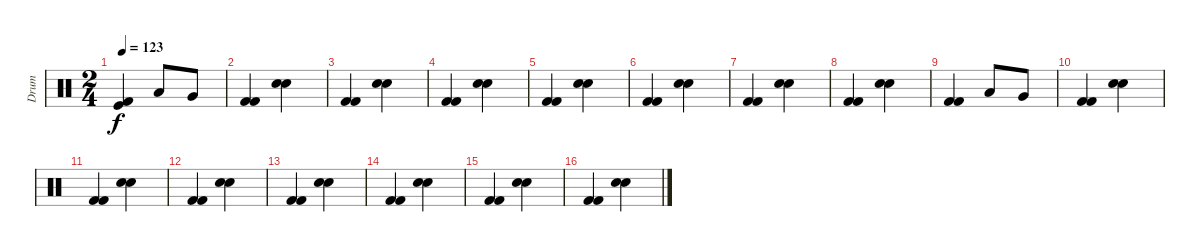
\track ("Drum" "Drum") {instrument percussion}
\staff {score}
\articulation defaults
\ts (2 4)
\tempo 123
\clef neutral
\ks c
("Kick (hit)" "Kick (hit) 2").4{dy f} "Low Tom (hit)".8 "Very Low Tom (hit)".8 |
("Kick (hit) 2" "Kick (hit) 2").4 ("Snare (hit) 2" "Snare (hit) 2").4 |
("Kick (hit) 2" "Kick (hit) 2").4 ("Snare (hit) 2" "Snare (hit) 2").4 |
("Kick (hit) 2" "Kick (hit) 2").4 ("Snare (hit) 2" "Snare (hit) 2").4 |
("Kick (hit) 2" "Kick (hit) 2").4 ("Snare (hit) 2" "Snare (hit) 2").4 |
("Kick (hit) 2" "Kick (hit) 2").4 ("Snare (hit) 2" "Snare (hit) 2").4 |
("Kick (hit) 2" "Kick (hit) 2").4 ("Snare (hit) 2" "Snare (hit) 2").4 |
("Kick (hit) 2" "Kick (hit) 2").4 ("Snare (hit) 2" "Snare (hit) 2").4 |
("Kick (hit) 2" "Kick (hit) 2").4 "Low Tom (hit)".8 "Very Low Tom (hit)".8 |
("Kick (hit) 2" "Kick (hit) 2").4 ("Snare (hit) 2" "Snare (hit) 2").4 |
("Kick (hit) 2" "Kick (hit) 2").4 ("Snare (hit) 2" "Snare (hit) 2").4 |
("Kick (hit) 2" "Kick (hit) 2").4 ("Snare (hit) 2" "Snare (hit) 2").4 |
("Kick (hit) 2" "Kick (hit) 2").4 ("Snare (hit) 2" "Snare (hit) 2").4 |
("Kick (hit) 2" "Kick (hit) 2").4 ("Snare (hit) 2" "Snare (hit) 2").4 |
("Kick (hit) 2" "Kick (hit) 2").4 ("Snare (hit) 2" "Snare (hit) 2").4 |
("Kick (hit) 2" "Kick (hit) 2").4 ("Snare (hit) 2" "Snare (hit) 2").4
